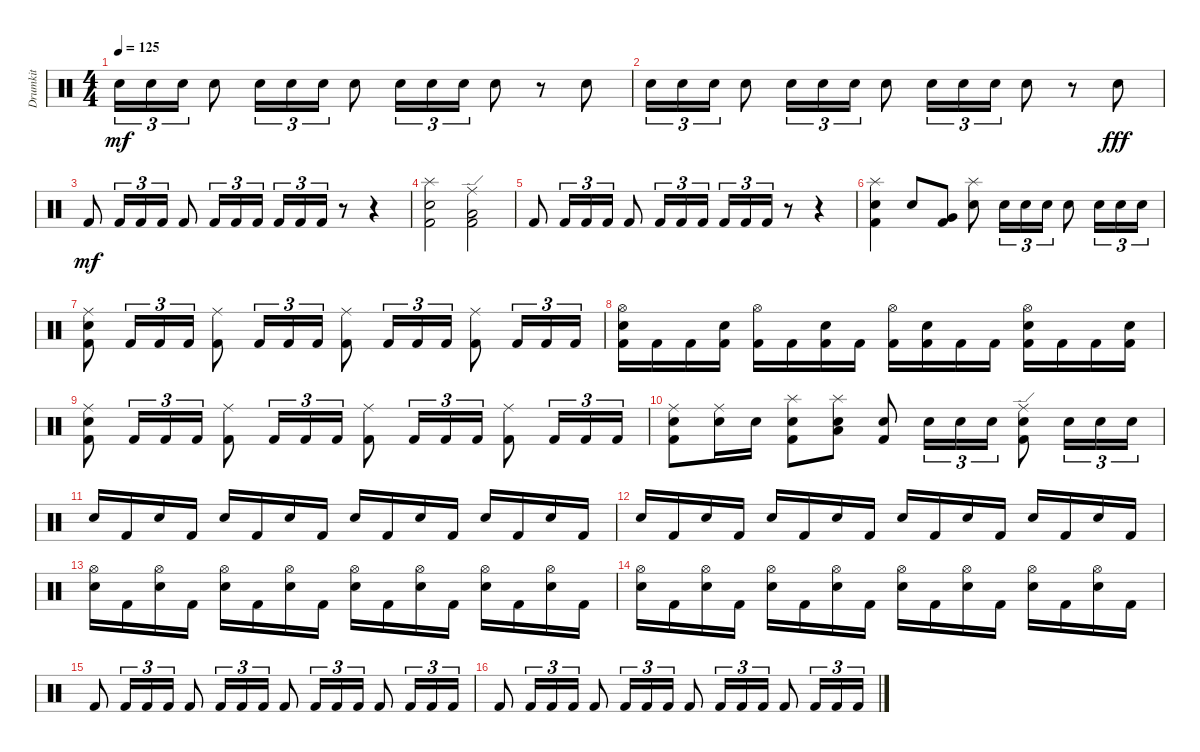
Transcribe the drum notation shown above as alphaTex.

\track ("Drumkit" "Drumkit") {instrument percussion}
\staff {score}
\articulation defaults
\ts (4 4)
\tempo 125
\clef neutral
\ks c "Snare (hit) 2".16{tu (3 2) dy mf} "Snare (hit) 2".16{tu (3 2)} "Snare (hit) 2".16{tu (3 2)} "Snare (hit) 2".8 "Snare (hit) 2".16{tu (3 2)} "Snare (hit) 2".16{tu (3 2)} "Snare (hit) 2".16{tu (3 2)} "Snare (hit) 2".8 "Snare (hit) 2".16{tu (3 2)} "Snare (hit) 2".16{tu (3 2)} "Snare (hit) 2".16{tu (3 2)} "Snare (hit) 2".8
r.8 "Snare (hit) 2".8 |
"Snare (hit) 2".16{tu (3 2)} "Snare (hit) 2".16{tu (3 2)} "Snare (hit) 2".16{tu (3 2)} "Snare (hit) 2".8 "Snare (hit) 2".16{tu (3 2)} "Snare (hit) 2".16{tu (3 2)} "Snare (hit) 2".16{tu (3 2)} "Snare (hit) 2".8 "Snare (hit) 2".16{tu (3 2)} "Snare (hit) 2".16{tu (3 2)} "Snare (hit) 2".16{tu (3 2)} "Snare (hit) 2".8 r.8 "Snare (hit) 2".8{dy fff} |
"Kick (hit) 2".8{dy mf} "Kick (hit) 2".16{tu (3 2)} "Kick (hit) 2".16{tu (3 2)} "Kick (hit) 2".16{tu (3 2)} "Kick (hit) 2".8 "Kick (hit) 2".16{tu (3 2)} "Kick (hit) 2".16{tu (3 2)} "Kick (hit) 2".16{tu (3 2)} "Kick (hit) 2".16{tu (3 2)} "Kick (hit) 2".16{tu (3 2)} "Kick (hit) 2".16{tu (3 2)} r.8 r.4 |
("Kick (hit) 2" "Snare (hit) 2" "Splash (hit)").2 ("Kick (hit) 2" "Low Tom (hit)" "Ride (edge)").2 |
"Kick (hit) 2".8 "Kick (hit) 2".16{tu (3 2)} "Kick (hit) 2".16{tu (3 2)} "Kick (hit) 2".16{tu (3 2)} "Kick (hit) 2".8 "Kick (hit) 2".16{tu (3 2)} "Kick (hit) 2".16{tu (3 2)} "Kick (hit) 2".16{tu (3 2)} "Kick (hit) 2".16{tu (3 2)} "Kick (hit) 2".16{tu (3 2)} "Kick (hit) 2".16{tu (3 2)} r.8 r.4 |
("Kick (hit) 2" "Snare (hit) 2" "Splash (hit)").4 "Snare (hit) 2".8 ("Kick (hit) 2" "Very Low Tom (hit)").8 ("Snare (hit) 2" "Splash (hit)").8 "Snare (hit) 2".16{tu (3 2)} "Snare (hit) 2".16{tu (3 2)} "Snare (hit) 2".16{tu (3 2)} "Snare (hit) 2".8 "Snare (hit) 2".16{tu (3 2)} "Snare (hit) 2".16{tu (3 2)} "Snare (hit) 2".16{tu (3 2)} |
("Kick (hit) 2" "Snare (hit) 2" "Ride (middle)").8 "Kick (hit) 2".16{tu (3 2)} "Kick (hit) 2".16{tu (3 2)} "Kick (hit) 2".16{tu (3 2)} ("Kick (hit) 2" "Ride (middle)").8 "Kick (hit) 2".16{tu (3 2)} "Kick (hit) 2".16{tu (3 2)} "Kick (hit) 2".16{tu (3 2)} ("Kick (hit) 2" "Ride (middle)").8 "Kick (hit) 2".16{tu (3 2)} "Kick (hit) 2".16{tu (3 2)} "Kick (hit) 2".16{tu (3 2)} ("Kick (hit) 2" "Ride (middle)").8 "Kick (hit) 2".16{tu (3 2)} "Kick (hit) 2".16{tu (3 2)} "Kick (hit) 2".16{tu (3 2)} |
("Kick (hit) 2" "Hi-Hat (open)" "Snare (hit) 2").16 "Kick (hit) 2".16 "Kick (hit) 2".16 ("Kick (hit) 2" "Snare (hit) 2").16 ("Kick (hit) 2" "Hi-Hat (open)").16 "Kick (hit) 2".16 ("Kick (hit) 2" "Snare (hit) 2").16 "Kick (hit) 2".16 ("Kick (hit) 2" "Hi-Hat (open)").16 ("Kick (hit) 2" "Snare (hit) 2").16 "Kick (hit) 2".16 "Kick (hit) 2".16 ("Kick (hit) 2" "Hi-Hat (open)" "Snare (hit) 2").16 "Kick (hit) 2".16 "Kick (hit) 2".16 ("Kick (hit) 2" "Snare (hit) 2").16 |
("Kick (hit) 2" "Snare (hit) 2" "Ride (middle)").8 "Kick (hit) 2".16{tu (3 2)} "Kick (hit) 2".16{tu (3 2)} "Kick (hit) 2".16{tu (3 2)} ("Kick (hit) 2" "Ride (middle)").8 "Kick (hit) 2".16{tu (3 2)} "Kick (hit) 2".16{tu (3 2)} "Kick (hit) 2".16{tu (3 2)} ("Kick (hit) 2" "Ride (middle)").8 "Kick (hit) 2".16{tu (3 2)} "Kick (hit) 2".16{tu (3 2)} "Kick (hit) 2".16{tu (3 2)} ("Kick (hit) 2" "Ride (middle)").8 "Kick (hit) 2".16{tu (3 2)} "Kick (hit) 2".16{tu (3 2)} "Kick (hit) 2".16{tu (3 2)} |
("Kick (hit) 2" "Snare (hit) 2" "Ride (middle)").8 ("Snare (hit) 2" "Ride (middle)").16 "Snare (hit) 2".16 ("Snare (hit) 2" "Kick (hit) 2" "Splash (hit)").8 ("Snare (hit) 2" "Low Tom (hit)" "Splash (hit)").8 ("Snare (hit) 2" "Kick (hit) 2").8 "Snare (hit) 2".16{tu (3 2)} "Snare (hit) 2".16{tu (3 2)} "Snare (hit) 2".16{tu (3 2)} ("Ride (edge)" "Kick (hit) 2" "Snare (hit) 2").8 "Snare (hit) 2".16{tu (3 2)} "Snare (hit) 2".16{tu (3 2)} "Snare (hit) 2".16{tu (3 2)} |
"Snare (hit) 2".16 "Kick (hit) 2".16 "Snare (hit) 2".16 "Kick (hit) 2".16 "Snare (hit) 2".16 "Kick (hit) 2".16 "Snare (hit) 2".16 "Kick (hit) 2".16 "Snare (hit) 2".16 "Kick (hit) 2".16 "Snare (hit) 2".16 "Kick (hit) 2".16 "Snare (hit) 2".16 "Kick (hit) 2".16 "Snare (hit) 2".16 "Kick (hit) 2".16 |
"Snare (hit) 2".16 "Kick (hit) 2".16 "Snare (hit) 2".16 "Kick (hit) 2".16 "Snare (hit) 2".16 "Kick (hit) 2".16 "Snare (hit) 2".16 "Kick (hit) 2".16 "Snare (hit) 2".16 "Kick (hit) 2".16 "Snare (hit) 2".16 "Kick (hit) 2".16 "Snare (hit) 2".16 "Kick (hit) 2".16 "Snare (hit) 2".16 "Kick (hit) 2".16 |
("Snare (hit) 2" "Hi-Hat (open)").16 "Kick (hit) 2".16 ("Snare (hit) 2" "Hi-Hat (open)").16 "Kick (hit) 2".16 ("Snare (hit) 2" "Hi-Hat (open)").16 "Kick (hit) 2".16 ("Snare (hit) 2" "Hi-Hat (open)").16 "Kick (hit) 2".16 ("Snare (hit) 2" "Hi-Hat (open)").16 "Kick (hit) 2".16 ("Snare (hit) 2" "Hi-Hat (open)").16 "Kick (hit) 2".16 ("Snare (hit) 2" "Hi-Hat (open)").16 "Kick (hit) 2".16 ("Snare (hit) 2" "Hi-Hat (open)").16 "Kick (hit) 2".16 |
("Snare (hit) 2" "Hi-Hat (open)").16 "Kick (hit) 2".16 ("Snare (hit) 2" "Hi-Hat (open)").16 "Kick (hit) 2".16 ("Snare (hit) 2" "Hi-Hat (open)").16 "Kick (hit) 2".16 ("Snare (hit) 2" "Hi-Hat (open)").16 "Kick (hit) 2".16 ("Snare (hit) 2" "Hi-Hat (open)").16 "Kick (hit) 2".16 ("Snare (hit) 2" "Hi-Hat (open)").16 "Kick (hit) 2".16 ("Snare (hit) 2" "Hi-Hat (open)").16 "Kick (hit) 2".16 ("Snare (hit) 2" "Hi-Hat (open)").16 "Kick (hit) 2".16 |
"Kick (hit) 2".8 "Kick (hit) 2".16{tu (3 2)} "Kick (hit) 2".16{tu (3 2)} "Kick (hit) 2".16{tu (3 2)} "Kick (hit) 2".8 "Kick (hit) 2".16{tu (3 2)} "Kick (hit) 2".16{tu (3 2)} "Kick (hit) 2".16{tu (3 2)} "Kick (hit) 2".8 "Kick (hit) 2".16{tu (3 2)} "Kick (hit) 2".16{tu (3 2)} "Kick (hit) 2".16{tu (3 2)} "Kick (hit) 2".8 "Kick (hit) 2".16{tu (3 2)} "Kick (hit) 2".16{tu (3 2)} "Kick (hit) 2".16{tu (3 2)} |
"Kick (hit) 2".8 "Kick (hit) 2".16{tu (3 2)} "Kick (hit) 2".16{tu (3 2)} "Kick (hit) 2".16{tu (3 2)} "Kick (hit) 2".8 "Kick (hit) 2".16{tu (3 2)} "Kick (hit) 2".16{tu (3 2)} "Kick (hit) 2".16{tu (3 2)} "Kick (hit) 2".8 "Kick (hit) 2".16{tu (3 2)} "Kick (hit) 2".16{tu (3 2)} "Kick (hit) 2".16{tu (3 2)} "Kick (hit) 2".8 "Kick (hit) 2".16{tu (3 2)} "Kick (hit) 2".16{tu (3 2)} "Kick (hit) 2".16{tu (3 2)}
